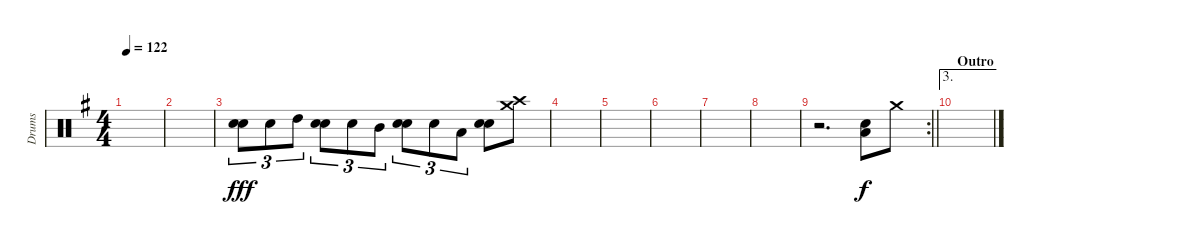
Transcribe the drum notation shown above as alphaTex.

\track ("Drums" "Drums") {instrument percussion}
\staff {score}
\articulation defaults
\ts (4 4)
\tempo 122
\clef neutral
\ks g
|
|
("Hand Clap (hit)" "Electric Snare (hit)").8{tu (3 2) dy fff} "Electric Snare (hit)".8{tu (3 2)} "High Tom (hit)".8{tu (3 2)} ("Hand Clap (hit)" "Electric Snare (hit)").8{tu (3 2)} "Electric Snare (hit)".8{tu (3 2)} "Mid Tom (hit)".8{tu (3 2)} ("Hand Clap (hit)" "Electric Snare (hit)").8{tu (3 2)} "Electric Snare (hit)".8{tu (3 2)} "Low Tom (hit)".8{tu (3 2)} ("Electric Snare (hit)" "Electric Snare (hit)").8{bd 480} ("Crash high (hit)" "Crash medium (hit)").8 |
|
|
|
|
|
\rc 2
\barLineRight lightlight
r.2{d} ("Low Tom (hit)" "Electric Snare (hit)").8{dy f} "Crash medium (hit)".8 |
\ae 3
\section ("" "Outro")
